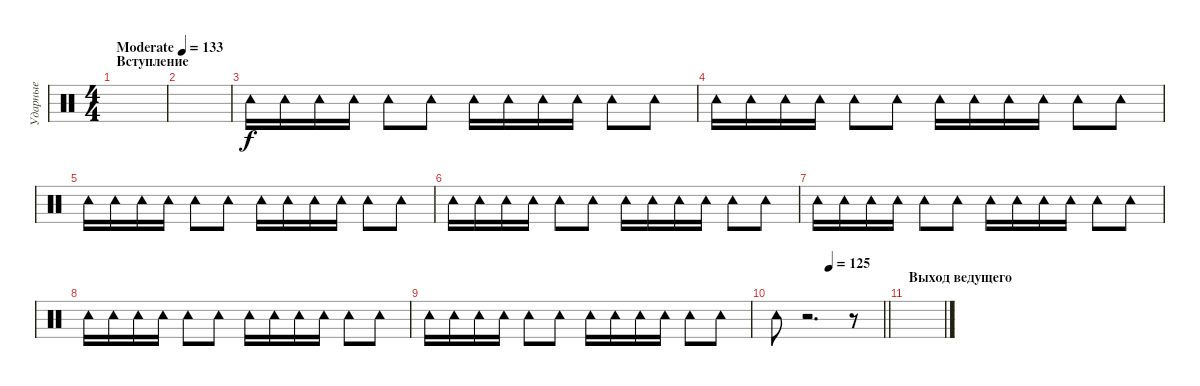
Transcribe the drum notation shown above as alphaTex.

\track ("Ударные" "Ударные") {instrument percussion}
\staff {score}
\articulation defaults
\ts (4 4)
\section ("" "Вступление")
\tempo (133 "Moderate")
\clef neutral
\ks c
|
|
"Tambourine (hit)".16 "Tambourine (hit)".16 "Tambourine (hit)".16 "Tambourine (hit)".16 "Tambourine (hit)".8 "Tambourine (hit)".8 "Tambourine (hit)".16 "Tambourine (hit)".16 "Tambourine (hit)".16 "Tambourine (hit)".16 "Tambourine (hit)".8 "Tambourine (hit)".8 |
"Tambourine (hit)".16 "Tambourine (hit)".16 "Tambourine (hit)".16 "Tambourine (hit)".16 "Tambourine (hit)".8 "Tambourine (hit)".8 "Tambourine (hit)".16 "Tambourine (hit)".16 "Tambourine (hit)".16 "Tambourine (hit)".16 "Tambourine (hit)".8 "Tambourine (hit)".8 |
"Tambourine (hit)".16 "Tambourine (hit)".16 "Tambourine (hit)".16 "Tambourine (hit)".16 "Tambourine (hit)".8 "Tambourine (hit)".8 "Tambourine (hit)".16 "Tambourine (hit)".16 "Tambourine (hit)".16 "Tambourine (hit)".16 "Tambourine (hit)".8 "Tambourine (hit)".8 |
"Tambourine (hit)".16 "Tambourine (hit)".16 "Tambourine (hit)".16 "Tambourine (hit)".16 "Tambourine (hit)".8 "Tambourine (hit)".8 "Tambourine (hit)".16 "Tambourine (hit)".16 "Tambourine (hit)".16 "Tambourine (hit)".16 "Tambourine (hit)".8 "Tambourine (hit)".8 |
"Tambourine (hit)".16 "Tambourine (hit)".16 "Tambourine (hit)".16 "Tambourine (hit)".16 "Tambourine (hit)".8 "Tambourine (hit)".8 "Tambourine (hit)".16 "Tambourine (hit)".16 "Tambourine (hit)".16 "Tambourine (hit)".16 "Tambourine (hit)".8 "Tambourine (hit)".8 |
"Tambourine (hit)".16 "Tambourine (hit)".16 "Tambourine (hit)".16 "Tambourine (hit)".16 "Tambourine (hit)".8 "Tambourine (hit)".8 "Tambourine (hit)".16 "Tambourine (hit)".16 "Tambourine (hit)".16 "Tambourine (hit)".16 "Tambourine (hit)".8 "Tambourine (hit)".8 |
"Tambourine (hit)".16 "Tambourine (hit)".16 "Tambourine (hit)".16 "Tambourine (hit)".16 "Tambourine (hit)".8 "Tambourine (hit)".8 "Tambourine (hit)".16 "Tambourine (hit)".16 "Tambourine (hit)".16 "Tambourine (hit)".16 "Tambourine (hit)".8 "Tambourine (hit)".8 |
\tempo (125 0.5)
\barLineRight lightlight "Tambourine (hit)".8
r.2{d} r.8 |
\section ("" "Выход ведущего")
